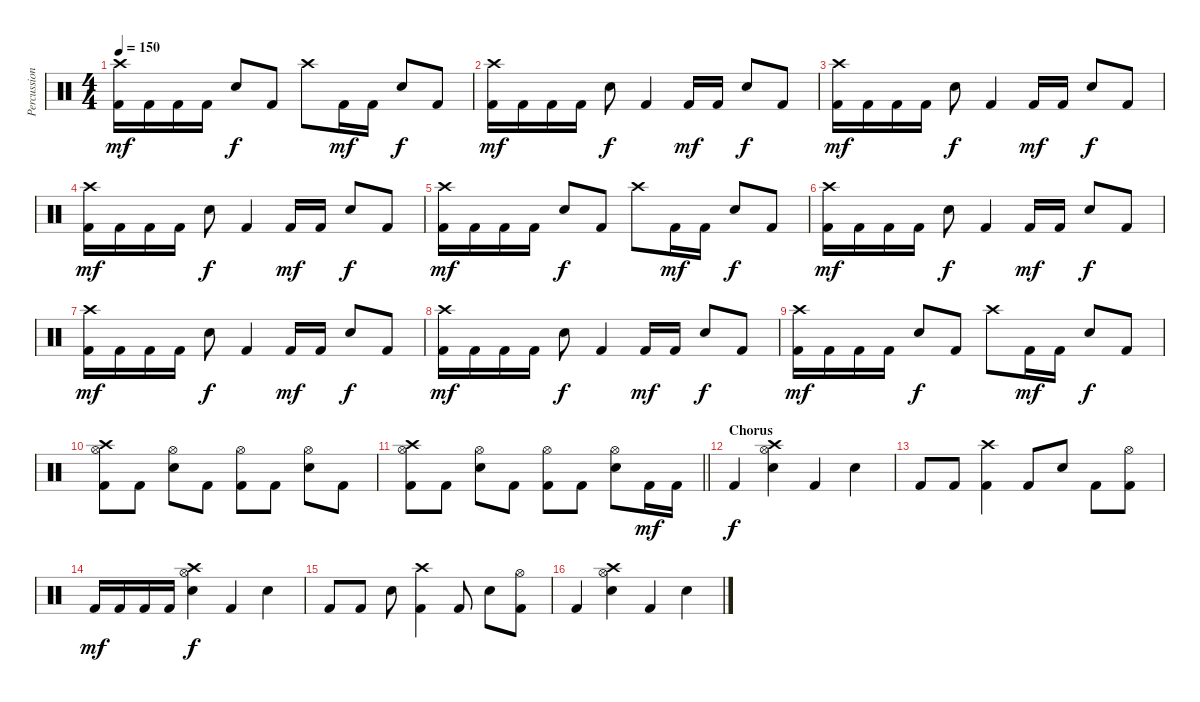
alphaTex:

\track ("Percussion" "Percussion") {instrument percussion}
\staff {score}
\articulation defaults
\ts (4 4)
\tempo 150
\clef neutral
\ks c
("Crash high (hit)" "Kick (hit) 2").16{dy mf} "Kick (hit) 2".16 "Kick (hit) 2".16 "Kick (hit) 2".16 "Electric Snare (hit)".8{dy f} "Kick (hit) 2".8 "Crash high (hit)".8 "Kick (hit) 2".16{dy mf} "Kick (hit) 2".16 "Electric Snare (hit)".8{dy f} "Kick (hit) 2".8 |
("Crash high (hit)" "Kick (hit) 2").16{dy mf} "Kick (hit) 2".16 "Kick (hit) 2".16 "Kick (hit) 2".16 "Electric Snare (hit)".8{dy f} "Kick (hit) 2".4 "Kick (hit) 2".16{dy mf} "Kick (hit) 2".16 "Electric Snare (hit)".8{dy f} "Kick (hit) 2".8 |
("Crash high (hit)" "Kick (hit) 2").16{dy mf} "Kick (hit) 2".16 "Kick (hit) 2".16 "Kick (hit) 2".16 "Electric Snare (hit)".8{dy f} "Kick (hit) 2".4 "Kick (hit) 2".16{dy mf} "Kick (hit) 2".16 "Electric Snare (hit)".8{dy f} "Kick (hit) 2".8 |
("Crash high (hit)" "Kick (hit) 2").16{dy mf} "Kick (hit) 2".16 "Kick (hit) 2".16 "Kick (hit) 2".16 "Electric Snare (hit)".8{dy f} "Kick (hit) 2".4 "Kick (hit) 2".16{dy mf} "Kick (hit) 2".16 "Electric Snare (hit)".8{dy f} "Kick (hit) 2".8 |
("Crash high (hit)" "Kick (hit) 2").16{dy mf} "Kick (hit) 2".16 "Kick (hit) 2".16 "Kick (hit) 2".16 "Electric Snare (hit)".8{dy f} "Kick (hit) 2".8 "Crash high (hit)".8 "Kick (hit) 2".16{dy mf} "Kick (hit) 2".16 "Electric Snare (hit)".8{dy f} "Kick (hit) 2".8 |
("Crash high (hit)" "Kick (hit) 2").16{dy mf} "Kick (hit) 2".16 "Kick (hit) 2".16 "Kick (hit) 2".16 "Electric Snare (hit)".8{dy f} "Kick (hit) 2".4 "Kick (hit) 2".16{dy mf} "Kick (hit) 2".16 "Electric Snare (hit)".8{dy f} "Kick (hit) 2".8 |
("Crash high (hit)" "Kick (hit) 2").16{dy mf} "Kick (hit) 2".16 "Kick (hit) 2".16 "Kick (hit) 2".16 "Electric Snare (hit)".8{dy f} "Kick (hit) 2".4 "Kick (hit) 2".16{dy mf} "Kick (hit) 2".16 "Electric Snare (hit)".8{dy f} "Kick (hit) 2".8 |
("Crash high (hit)" "Kick (hit) 2").16{dy mf} "Kick (hit) 2".16 "Kick (hit) 2".16 "Kick (hit) 2".16 "Electric Snare (hit)".8{dy f} "Kick (hit) 2".4 "Kick (hit) 2".16{dy mf} "Kick (hit) 2".16 "Electric Snare (hit)".8{dy f} "Kick (hit) 2".8 |
("Crash high (hit)" "Kick (hit) 2").16{dy mf} "Kick (hit) 2".16 "Kick (hit) 2".16 "Kick (hit) 2".16 "Electric Snare (hit)".8{dy f} "Kick (hit) 2".8 "Crash high (hit)".8 "Kick (hit) 2".16{dy mf} "Kick (hit) 2".16 "Electric Snare (hit)".8{dy f} "Kick (hit) 2".8 |
("Hi-Hat (open)" "Crash high (hit)" "Kick (hit) 2").8 "Kick (hit) 2".8 ("Hi-Hat (open)" "Electric Snare (hit)").8 "Kick (hit) 2".8 ("Hi-Hat (open)" "Kick (hit) 2").8 "Kick (hit) 2".8 ("Hi-Hat (open)" "Electric Snare (hit)").8 "Kick (hit) 2".8 |
\barLineRight lightlight
("Hi-Hat (open)" "Crash high (hit)" "Kick (hit) 2").8 "Kick (hit) 2".8 ("Hi-Hat (open)" "Electric Snare (hit)").8 "Kick (hit) 2".8 ("Hi-Hat (open)" "Kick (hit) 2").8 "Kick (hit) 2".8 ("Hi-Hat (open)" "Electric Snare (hit)").8 "Kick (hit) 2".16{dy mf} "Kick (hit) 2".16 |
\section ("" "Chorus")
"Kick (hit) 2".4{dy f} ("Crash high (hit)" "Electric Snare (hit)" "Hi-Hat (open)").4 "Kick (hit) 2".4 "Electric Snare (hit)".4 |
"Kick (hit) 2".8 "Kick (hit) 2".8 ("Crash high (hit)" "Kick (hit) 2").4 "Kick (hit) 2".8 "Electric Snare (hit)".8 "Kick (hit) 2".8 ("Hi-Hat (open)" "Kick (hit) 2").8 |
"Kick (hit) 2".16{dy mf} "Kick (hit) 2".16 "Kick (hit) 2".16 "Kick (hit) 2".16 ("Crash high (hit)" "Electric Snare (hit)" "Hi-Hat (open)").4{dy f} "Kick (hit) 2".4 "Electric Snare (hit)".4 |
"Kick (hit) 2".8 "Kick (hit) 2".8 "Electric Snare (hit)".8 ("Crash high (hit)" "Kick (hit) 2").4 "Kick (hit) 2".8 "Electric Snare (hit)".8 ("Hi-Hat (open)" "Kick (hit) 2").8 |
"Kick (hit) 2".4 ("Crash high (hit)" "Electric Snare (hit)" "Hi-Hat (open)").4 "Kick (hit) 2".4 "Electric Snare (hit)".4
